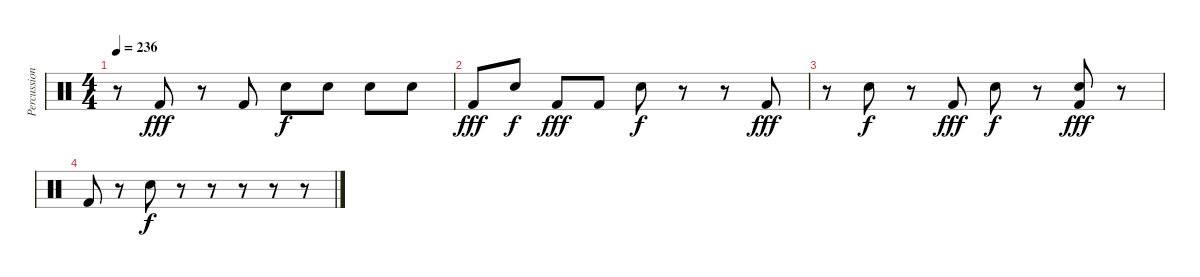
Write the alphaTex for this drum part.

\track ("Percussions" "Percussion") {instrument percussion}
\staff {score}
\articulation defaults
\ts (4 4)
\tempo 236
\clef neutral
\ks c
r.8{dy fff} "Kick (hit) 2".8 r.8 "Kick (hit) 2".8 "Snare (hit) 2".8{dy f} "Snare (hit) 2".8 "Snare (hit) 2".8 "Snare (hit) 2".8 |
"Kick (hit) 2".8{dy fff} "Snare (hit) 2".8{dy f} "Kick (hit) 2".8{dy fff} "Kick (hit) 2".8 "Snare (hit) 2".8{dy f} r.8 r.8 "Kick (hit) 2".8{dy fff} |
r.8 "Snare (hit) 2".8{dy f} r.8 "Kick (hit) 2".8{dy fff} "Snare (hit) 2".8{dy f} r.8 ("Snare (hit) 2" "Kick (hit) 2").8{dy fff} r.8 |
"Kick (hit) 2".8 r.8 "Snare (hit) 2".8{dy f} r.8 r.8 r.8 r.8 r.8
